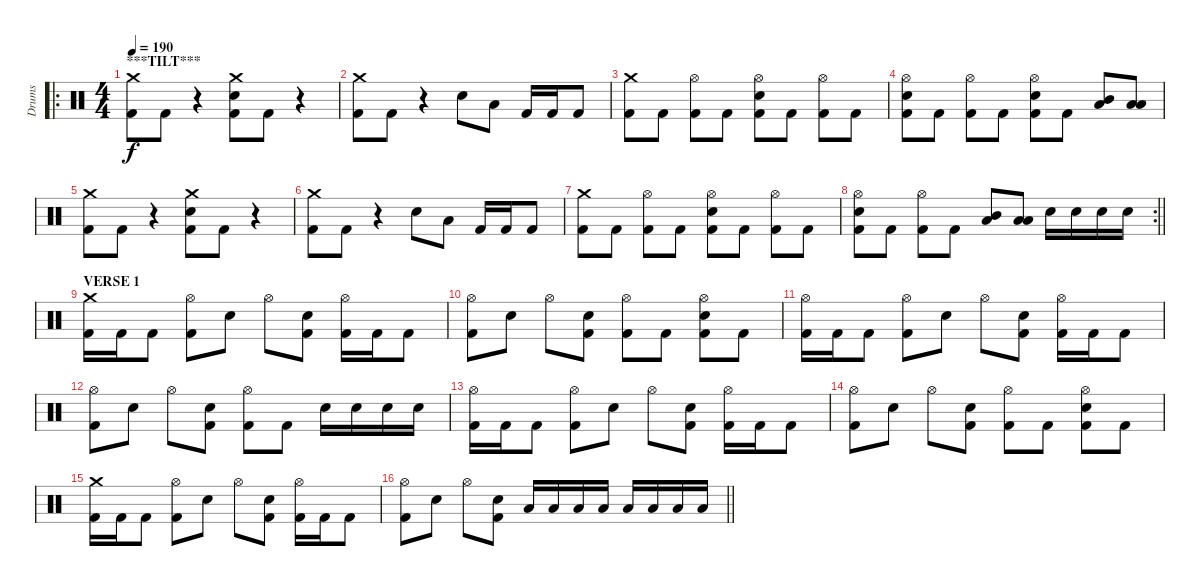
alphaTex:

\track ("Drums" "Drums") {instrument percussion}
\staff {score}
\articulation defaults
\ro
\ts (4 4)
\section ("" "***TILT***")
\tempo 190
\clef neutral
\ks c
("Crash medium (hit)" "Kick (hit) 2").8{dy f} "Kick (hit) 2".8 r.4 ("Crash medium (hit)" "Electric Snare (hit)" "Kick (hit) 2").8 "Kick (hit) 2".8 r.4 |
("Crash medium (hit)" "Kick (hit) 2").8 "Kick (hit) 2".8 r.4 "Electric Snare (hit)".8 "Low Floor Tom (hit)".8 "Kick (hit) 2".16 "Kick (hit) 2".16 "Kick (hit) 2".8 |
("Crash medium (hit)" "Kick (hit) 2").8 "Kick (hit) 2".8 ("Hi-Hat (open)" "Kick (hit) 2").8 "Kick (hit) 2".8 ("Hi-Hat (open)" "Electric Snare (hit)" "Kick (hit) 2").8 "Kick (hit) 2".8 ("Hi-Hat (open)" "Kick (hit) 2").8 "Kick (hit) 2".8 |
("Hi-Hat (open)" "Electric Snare (hit)" "Kick (hit) 2").8 "Kick (hit) 2".8 ("Hi-Hat (open)" "Kick (hit) 2").8 "Kick (hit) 2".8 ("Hi-Hat (open)" "Electric Snare (hit)" "Kick (hit) 2").8 "Kick (hit) 2".8 ("Mid Tom (hit)" "Low Tom (hit)").8 ("Low Tom (hit)" "Low Floor Tom (hit)").8 |
("Crash medium (hit)" "Kick (hit) 2").8 "Kick (hit) 2".8 r.4 ("Crash medium (hit)" "Electric Snare (hit)" "Kick (hit) 2").8 "Kick (hit) 2".8 r.4 |
("Crash medium (hit)" "Kick (hit) 2").8 "Kick (hit) 2".8 r.4 "Electric Snare (hit)".8 "Low Floor Tom (hit)".8 "Kick (hit) 2".16 "Kick (hit) 2".16 "Kick (hit) 2".8 |
("Crash medium (hit)" "Kick (hit) 2").8 "Kick (hit) 2".8 ("Hi-Hat (open)" "Kick (hit) 2").8 "Kick (hit) 2".8 ("Hi-Hat (open)" "Electric Snare (hit)" "Kick (hit) 2").8 "Kick (hit) 2".8 ("Hi-Hat (open)" "Kick (hit) 2").8 "Kick (hit) 2".8 |
\rc 2
\barLineRight lightlight
("Hi-Hat (open)" "Electric Snare (hit)" "Kick (hit) 2").8 "Kick (hit) 2".8 ("Hi-Hat (open)" "Kick (hit) 2").8 "Kick (hit) 2".8 ("Mid Tom (hit)" "Low Tom (hit)").8 ("Low Tom (hit)" "Low Floor Tom (hit)").8 "Electric Snare (hit)".16 "Electric Snare (hit)".16 "Electric Snare (hit)".16 "Electric Snare (hit)".16 |
\section ("" "VERSE 1")
("Crash medium (hit)" "Kick (hit) 2").16 "Kick (hit) 2".16 "Kick (hit) 2".8 ("Hi-Hat (open)" "Kick (hit) 2").8 "Electric Snare (hit)".8 "Hi-Hat (open)".8 ("Electric Snare (hit)" "Kick (hit) 2").8 ("Hi-Hat (open)" "Kick (hit) 2").16 "Kick (hit) 2".16 "Kick (hit) 2".8 |
("Hi-Hat (open)" "Kick (hit) 2").8 "Electric Snare (hit)".8 "Hi-Hat (open)".8 ("Electric Snare (hit)" "Kick (hit) 2").8 ("Hi-Hat (open)" "Kick (hit) 2").8 "Kick (hit) 2".8 ("Hi-Hat (open)" "Electric Snare (hit)" "Kick (hit) 2").8 "Kick (hit) 2".8 |
("Hi-Hat (open)" "Kick (hit) 2").16 "Kick (hit) 2".16 "Kick (hit) 2".8 ("Hi-Hat (open)" "Kick (hit) 2").8 "Electric Snare (hit)".8 "Hi-Hat (open)".8 ("Electric Snare (hit)" "Kick (hit) 2").8 ("Hi-Hat (open)" "Kick (hit) 2").16 "Kick (hit) 2".16 "Kick (hit) 2".8 |
("Hi-Hat (open)" "Kick (hit) 2").8 "Electric Snare (hit)".8 "Hi-Hat (open)".8 ("Electric Snare (hit)" "Kick (hit) 2").8 ("Hi-Hat (open)" "Kick (hit) 2").8 "Kick (hit) 2".8 "Electric Snare (hit)".16 "Electric Snare (hit)".16 "Electric Snare (hit)".16 "Electric Snare (hit)".16 |
("Hi-Hat (open)" "Kick (hit) 2").16 "Kick (hit) 2".16 "Kick (hit) 2".8 ("Hi-Hat (open)" "Kick (hit) 2").8 "Electric Snare (hit)".8 "Hi-Hat (open)".8 ("Electric Snare (hit)" "Kick (hit) 2").8 ("Hi-Hat (open)" "Kick (hit) 2").16 "Kick (hit) 2".16 "Kick (hit) 2".8 |
("Hi-Hat (open)" "Kick (hit) 2").8 "Electric Snare (hit)".8 "Hi-Hat (open)".8 ("Electric Snare (hit)" "Kick (hit) 2").8 ("Hi-Hat (open)" "Kick (hit) 2").8 "Kick (hit) 2".8 ("Hi-Hat (open)" "Electric Snare (hit)" "Kick (hit) 2").8 "Kick (hit) 2".8 |
("Crash medium (hit)" "Kick (hit) 2").16 "Kick (hit) 2".16 "Kick (hit) 2".8 ("Hi-Hat (open)" "Kick (hit) 2").8 "Electric Snare (hit)".8 "Hi-Hat (open)".8 ("Electric Snare (hit)" "Kick (hit) 2").8 ("Hi-Hat (open)" "Kick (hit) 2").16 "Kick (hit) 2".16 "Kick (hit) 2".8 |
\barLineRight lightlight
("Hi-Hat (open)" "Kick (hit) 2").8 "Electric Snare (hit)".8 "Hi-Hat (open)".8 ("Electric Snare (hit)" "Kick (hit) 2").8 "Low Tom (hit)".16 "Low Tom (hit)".16 "Low Tom (hit)".16 "Low Tom (hit)".16 "Low Floor Tom (hit)".16 "Low Floor Tom (hit)".16 "Low Floor Tom (hit)".16 "Low Floor Tom (hit)".16
